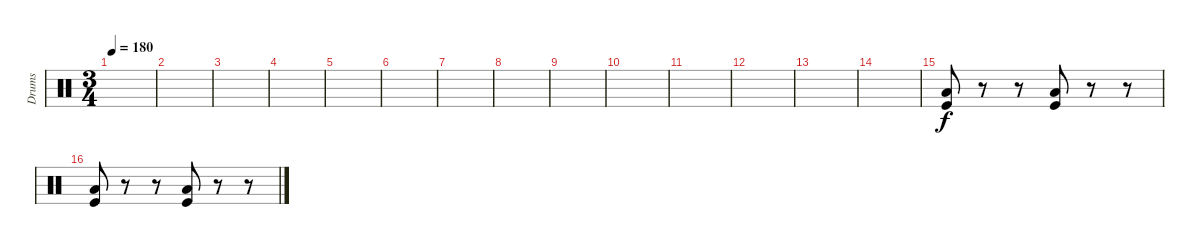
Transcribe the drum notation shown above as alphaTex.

\track ("Drums" "Drums") {instrument percussion}
\staff {score}
\articulation defaults
\ts (3 4)
\tempo 180
\clef neutral
\ks c
|
|
|
|
|
|
|
|
|
|
|
|
|
|
("Low Floor Tom (hit)" "Kick (hit)").8 r.8 r.8 ("Low Floor Tom (hit)" "Kick (hit)").8 r.8 r.8 |
("Low Floor Tom (hit)" "Kick (hit)").8 r.8 r.8 ("Low Floor Tom (hit)" "Kick (hit)").8 r.8 r.8
